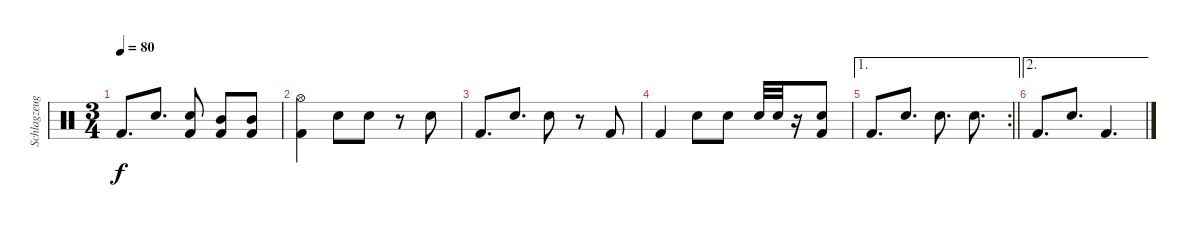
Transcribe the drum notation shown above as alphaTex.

\track ("Schlagzeug" "Schlagzeug") {instrument percussion}
\staff {score}
\articulation defaults
\ts (3 4)
\tempo 80
\clef neutral
\ks c "Kick (hit) 2".8{d dy f} "Snare (hit) 2".8{d}
("Snare (hit) 2" "Kick (hit) 2").8 ("Mid Tom (hit)" "Kick (hit) 2").8 ("Mid Tom (hit)" "Kick (hit) 2").8 |
("Hi-Hat (open)" "Kick (hit) 2").4 "Snare (hit) 2".8 "Snare (hit) 2".8 r.8 "Snare (hit) 2".8 |
"Kick (hit) 2".8{d} "Snare (hit) 2".8{d} "Snare (hit) 2".8 r.8 "Kick (hit) 2".8 |
"Kick (hit) 2".4 "Snare (hit) 2".8 "Snare (hit) 2".8 "Snare (hit) 2".32 "Snare (hit) 2".32 r.16 ("Snare (hit) 2" "Kick (hit) 2").8 |
\ae 1
\rc 2
\barLineRight lightlight "Kick (hit) 2".8{d} "Snare (hit) 2".8{d} "Snare (hit) 2".8{d} "Snare (hit) 2".8{d}
|
\ae 2 "Kick (hit) 2".8{d} "Snare (hit) 2".8{d} "Kick (hit) 2".4{d}
